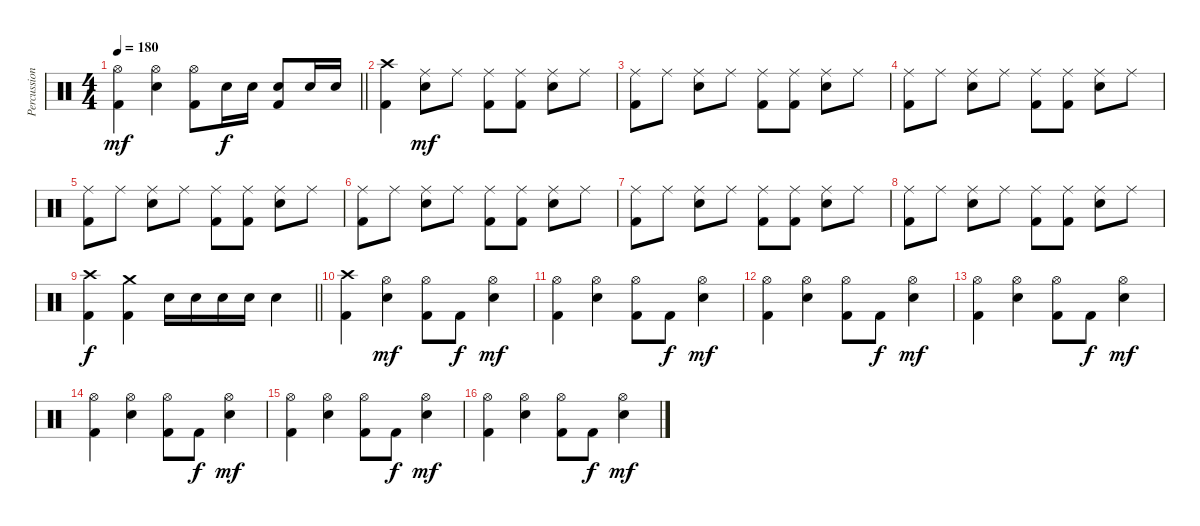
\track ("Percussion" "Percussion") {instrument percussion}
\staff {score}
\articulation defaults
\ts (4 4)
\tempo 180
\clef neutral
\barLineRight lightlight
\ks c
("Hi-Hat (open)" "Kick (hit) 2").4{dy mf} ("Hi-Hat (open)" "Electric Snare (hit)").4 ("Hi-Hat (open)" "Kick (hit) 2").8 "Electric Snare (hit)".16{dy f} "Electric Snare (hit)".16 ("Electric Snare (hit)" "Kick (hit) 2").8 "Electric Snare (hit)".16 "Electric Snare (hit)".16 |
("Crash high (hit)" "Kick (hit) 2").4 ("Ride (middle)" "Electric Snare (hit)").8{dy mf} "Ride (middle)".8 ("Ride (middle)" "Kick (hit) 2").8 ("Ride (middle)" "Kick (hit) 2").8 ("Ride (middle)" "Electric Snare (hit)").8 "Ride (middle)".8 |
("Ride (middle)" "Kick (hit) 2").8 "Ride (middle)".8 ("Ride (middle)" "Electric Snare (hit)").8 "Ride (middle)".8 ("Ride (middle)" "Kick (hit) 2").8 ("Ride (middle)" "Kick (hit) 2").8 ("Ride (middle)" "Electric Snare (hit)").8 "Ride (middle)".8 |
("Ride (middle)" "Kick (hit) 2").8 "Ride (middle)".8 ("Ride (middle)" "Electric Snare (hit)").8 "Ride (middle)".8 ("Ride (middle)" "Kick (hit) 2").8 ("Ride (middle)" "Kick (hit) 2").8 ("Ride (middle)" "Electric Snare (hit)").8 "Ride (middle)".8 |
("Ride (middle)" "Kick (hit) 2").8 "Ride (middle)".8 ("Ride (middle)" "Electric Snare (hit)").8 "Ride (middle)".8 ("Ride (middle)" "Kick (hit) 2").8 ("Ride (middle)" "Kick (hit) 2").8 ("Ride (middle)" "Electric Snare (hit)").8 "Ride (middle)".8 |
("Ride (middle)" "Kick (hit) 2").8 "Ride (middle)".8 ("Ride (middle)" "Electric Snare (hit)").8 "Ride (middle)".8 ("Ride (middle)" "Kick (hit) 2").8 ("Ride (middle)" "Kick (hit) 2").8 ("Ride (middle)" "Electric Snare (hit)").8 "Ride (middle)".8 |
("Ride (middle)" "Kick (hit) 2").8 "Ride (middle)".8 ("Ride (middle)" "Electric Snare (hit)").8 "Ride (middle)".8 ("Ride (middle)" "Kick (hit) 2").8 ("Ride (middle)" "Kick (hit) 2").8 ("Ride (middle)" "Electric Snare (hit)").8 "Ride (middle)".8 |
("Ride (middle)" "Kick (hit) 2").8 "Ride (middle)".8 ("Ride (middle)" "Electric Snare (hit)").8 "Ride (middle)".8 ("Ride (middle)" "Kick (hit) 2").8 ("Ride (middle)" "Kick (hit) 2").8 ("Ride (middle)" "Electric Snare (hit)").8 "Ride (middle)".8 |
\barLineRight lightlight
("Crash high (hit)" "Kick (hit) 2").4{dy f} ("Crash medium (hit)" "Kick (hit) 2").4 "Electric Snare (hit)".16 "Electric Snare (hit)".16 "Electric Snare (hit)".16 "Electric Snare (hit)".16 "Electric Snare (hit)".4 |
("Crash high (hit)" "Kick (hit) 2").4 ("Hi-Hat (open)" "Electric Snare (hit)").4{dy mf} ("Hi-Hat (open)" "Kick (hit) 2").8 "Kick (hit) 2".8{dy f} ("Hi-Hat (open)" "Electric Snare (hit)").4{dy mf} |
("Hi-Hat (open)" "Kick (hit) 2").4 ("Hi-Hat (open)" "Electric Snare (hit)").4 ("Hi-Hat (open)" "Kick (hit) 2").8 "Kick (hit) 2".8{dy f} ("Hi-Hat (open)" "Electric Snare (hit)").4{dy mf} |
("Hi-Hat (open)" "Kick (hit) 2").4 ("Hi-Hat (open)" "Electric Snare (hit)").4 ("Hi-Hat (open)" "Kick (hit) 2").8 "Kick (hit) 2".8{dy f} ("Hi-Hat (open)" "Electric Snare (hit)").4{dy mf} |
("Hi-Hat (open)" "Kick (hit) 2").4 ("Hi-Hat (open)" "Electric Snare (hit)").4 ("Hi-Hat (open)" "Kick (hit) 2").8 "Kick (hit) 2".8{dy f} ("Hi-Hat (open)" "Electric Snare (hit)").4{dy mf} |
("Hi-Hat (open)" "Kick (hit) 2").4 ("Hi-Hat (open)" "Electric Snare (hit)").4 ("Hi-Hat (open)" "Kick (hit) 2").8 "Kick (hit) 2".8{dy f} ("Hi-Hat (open)" "Electric Snare (hit)").4{dy mf} |
("Hi-Hat (open)" "Kick (hit) 2").4 ("Hi-Hat (open)" "Electric Snare (hit)").4 ("Hi-Hat (open)" "Kick (hit) 2").8 "Kick (hit) 2".8{dy f} ("Hi-Hat (open)" "Electric Snare (hit)").4{dy mf} |
("Hi-Hat (open)" "Kick (hit) 2").4 ("Hi-Hat (open)" "Electric Snare (hit)").4 ("Hi-Hat (open)" "Kick (hit) 2").8 "Kick (hit) 2".8{dy f} ("Hi-Hat (open)" "Electric Snare (hit)").4{dy mf}
